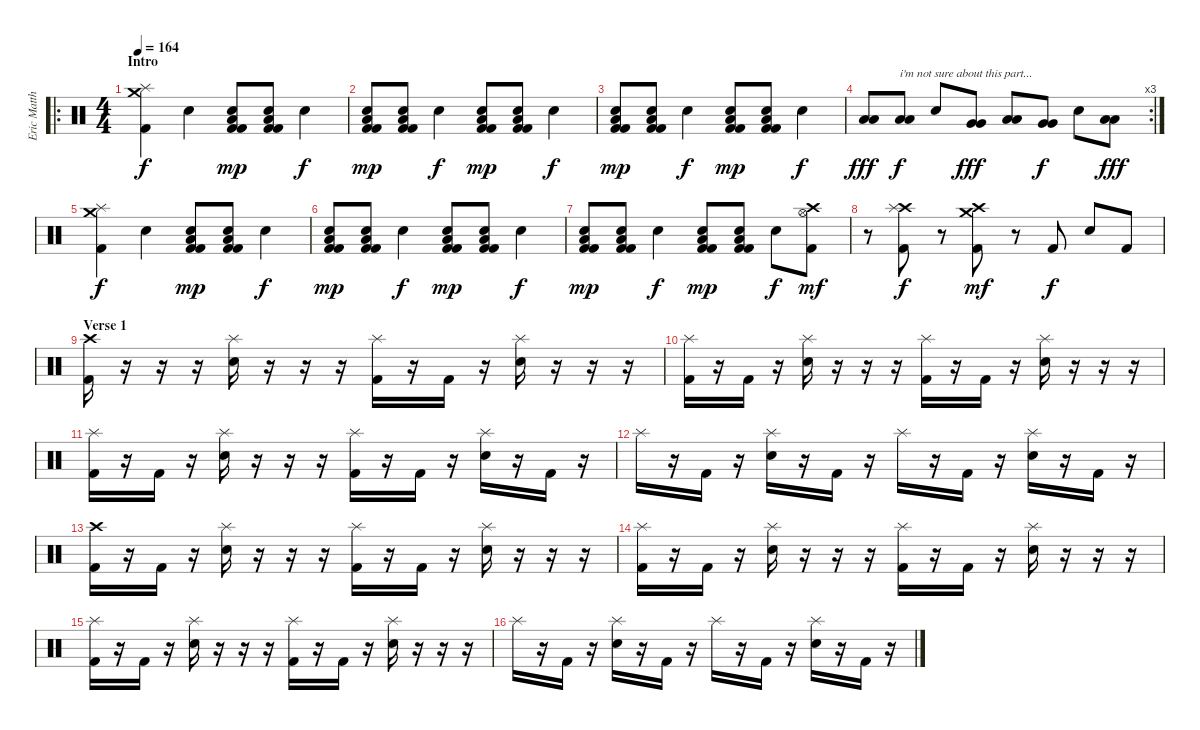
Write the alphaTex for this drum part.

\track ("Eric Matthews (drums)" "Eric Matth") {instrument percussion}
\staff {score}
\articulation defaults
\ro
\ts (4 4)
\section ("" "Intro")
\tempo 164
\clef neutral
\ks c
("Crash medium (hit)" "Splash (hit)" "Kick (hit) 2").4{dy f} "Snare (hit) 2".4 ("Kick (hit) 2" "Low Floor Tom (hit)" "Snare (hit) 2" "Kick (hit) 2").8{dy mp} ("Kick (hit) 2" "Low Floor Tom (hit)" "Snare (hit) 2" "Kick (hit) 2").8 "Snare (hit) 2".4{dy f} |
("Kick (hit) 2" "Low Floor Tom (hit)" "Snare (hit) 2" "Kick (hit) 2").8{dy mp} ("Kick (hit) 2" "Low Floor Tom (hit)" "Snare (hit) 2" "Kick (hit) 2").8 "Snare (hit) 2".4{dy f} ("Kick (hit) 2" "Low Floor Tom (hit)" "Snare (hit) 2" "Kick (hit) 2").8{dy mp} ("Kick (hit) 2" "Low Floor Tom (hit)" "Snare (hit) 2" "Kick (hit) 2").8 "Snare (hit) 2".4{dy f} |
("Kick (hit) 2" "Low Floor Tom (hit)" "Snare (hit) 2" "Kick (hit) 2").8{dy mp} ("Kick (hit) 2" "Low Floor Tom (hit)" "Snare (hit) 2" "Kick (hit) 2").8 "Snare (hit) 2".4{dy f} ("Kick (hit) 2" "Low Floor Tom (hit)" "Snare (hit) 2" "Kick (hit) 2").8{dy mp} ("Kick (hit) 2" "Low Floor Tom (hit)" "Snare (hit) 2" "Kick (hit) 2").8 "Snare (hit) 2".4{dy f} |
\rc 3
("Low Tom (hit)" "Low Tom (hit)").8{dy fff} ("Low Floor Tom (hit)" "Low Floor Tom (hit)").8{txt "i'm not sure about this part..." dy f} "Snare (hit) 2".8 ("Very Low Tom (hit)" "Very Low Tom (hit)").8{dy fff} ("Low Floor Tom (hit)" "Low Floor Tom (hit)").8 ("Very Low Tom (hit)" "Very Low Tom (hit)").8{dy f} "Snare (hit) 2".8 ("Low Floor Tom (hit)" "Low Floor Tom (hit)").8{dy fff} |
("Crash medium (hit)" "Splash (hit)" "Kick (hit) 2").4{dy f} "Snare (hit) 2".4 ("Kick (hit) 2" "Low Floor Tom (hit)" "Snare (hit) 2" "Kick (hit) 2").8{dy mp} ("Kick (hit) 2" "Low Floor Tom (hit)" "Snare (hit) 2" "Kick (hit) 2").8 "Snare (hit) 2".4{dy f} |
("Kick (hit) 2" "Low Floor Tom (hit)" "Snare (hit) 2" "Kick (hit) 2").8{dy mp} ("Kick (hit) 2" "Low Floor Tom (hit)" "Snare (hit) 2" "Kick (hit) 2").8 "Snare (hit) 2".4{dy f} ("Kick (hit) 2" "Low Floor Tom (hit)" "Snare (hit) 2" "Kick (hit) 2").8{dy mp} ("Kick (hit) 2" "Low Floor Tom (hit)" "Snare (hit) 2" "Kick (hit) 2").8 "Snare (hit) 2".4{dy f} |
("Kick (hit) 2" "Low Floor Tom (hit)" "Snare (hit) 2" "Kick (hit) 2").8{dy mp} ("Kick (hit) 2" "Low Floor Tom (hit)" "Snare (hit) 2" "Kick (hit) 2").8 "Snare (hit) 2".4{dy f} ("Kick (hit) 2" "Low Floor Tom (hit)" "Snare (hit) 2" "Kick (hit) 2").8{dy mp} ("Kick (hit) 2" "Low Floor Tom (hit)" "Snare (hit) 2" "Kick (hit) 2").8 "Snare (hit) 2".8{dy f} ("Crash high (hit)" "Hi-Hat (open)" "Kick (hit) 2").8{dy mf} |
r.8 ("Crash high (hit)" "Splash (hit)" "Kick (hit) 2").8{dy f} r.8 ("Crash high (hit)" "Crash medium (hit)" "Kick (hit) 2").8{dy mf} r.8 "Kick (hit) 2".8{dy f} "Snare (hit) 2".8 "Kick (hit) 2".8 |
\section ("" "Verse 1")
("Crash high (hit)" "Kick (hit) 2").16 r.16 r.16 r.16 ("Splash (hit)" "Snare (hit) 2").16 r.16 r.16 r.16 ("Splash (hit)" "Kick (hit) 2").16 r.16 "Kick (hit) 2".16 r.16 ("Splash (hit)" "Snare (hit) 2").16 r.16 r.16 r.16 |
("Splash (hit)" "Kick (hit) 2").16 r.16 "Kick (hit) 2".16 r.16 ("Splash (hit)" "Snare (hit) 2").16 r.16 r.16 r.16 ("Splash (hit)" "Kick (hit) 2").16 r.16 "Kick (hit) 2".16 r.16 ("Splash (hit)" "Snare (hit) 2").16 r.16 r.16 r.16 |
("Splash (hit)" "Kick (hit) 2").16 r.16 "Kick (hit) 2".16 r.16 ("Splash (hit)" "Snare (hit) 2").16 r.16 r.16 r.16 ("Splash (hit)" "Kick (hit) 2").16 r.16 "Kick (hit) 2".16 r.16 ("Splash (hit)" "Snare (hit) 2").16 r.16 "Kick (hit) 2".16 r.16 |
"Splash (hit)".16 r.16 "Kick (hit) 2".16 r.16 ("Splash (hit)" "Snare (hit) 2").16 r.16 "Kick (hit) 2".16 r.16 "Splash (hit)".16 r.16 "Kick (hit) 2".16 r.16 ("Splash (hit)" "Snare (hit) 2").16 r.16 "Kick (hit) 2".16 r.16 |
("Crash high (hit)" "Kick (hit) 2").16 r.16 "Kick (hit) 2".16 r.16 ("Splash (hit)" "Snare (hit) 2").16 r.16 r.16 r.16 ("Splash (hit)" "Kick (hit) 2").16 r.16 "Kick (hit) 2".16 r.16 ("Splash (hit)" "Snare (hit) 2").16 r.16 r.16 r.16 |
("Splash (hit)" "Kick (hit) 2").16 r.16 "Kick (hit) 2".16 r.16 ("Splash (hit)" "Snare (hit) 2").16 r.16 r.16 r.16 ("Splash (hit)" "Kick (hit) 2").16 r.16 "Kick (hit) 2".16 r.16 ("Splash (hit)" "Snare (hit) 2").16 r.16 r.16 r.16 |
("Splash (hit)" "Kick (hit) 2").16 r.16 "Kick (hit) 2".16 r.16 ("Splash (hit)" "Snare (hit) 2").16 r.16 r.16 r.16 ("Splash (hit)" "Kick (hit) 2").16 r.16 "Kick (hit) 2".16 r.16 ("Splash (hit)" "Snare (hit) 2").16 r.16 r.16 r.16 |
"Splash (hit)".16 r.16 "Kick (hit) 2".16 r.16 ("Splash (hit)" "Snare (hit) 2").16 r.16 "Kick (hit) 2".16 r.16 "Splash (hit)".16 r.16 "Kick (hit) 2".16 r.16 ("Splash (hit)" "Snare (hit) 2").16 r.16 "Kick (hit) 2".16 r.16
